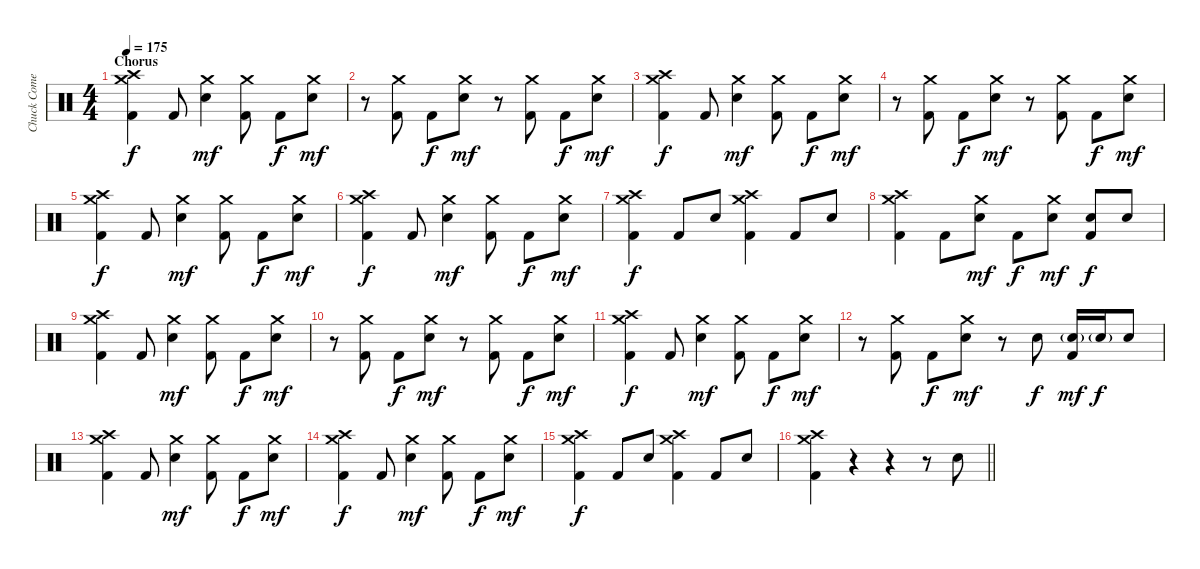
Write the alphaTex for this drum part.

\track ("Chuck Comeau" "Chuck Come") {instrument percussion}
\staff {score}
\articulation defaults
\ts (4 4)
\section ("" "Chorus")
\tempo 175
\clef neutral
\ks c
("Crash high (hit)" "Crash medium (hit)" "Kick (hit) 2").4{dy f} "Kick (hit) 2".8 ("Crash medium (hit)" "Electric Snare (hit)").4{dy mf} ("Crash medium (hit)" "Kick (hit) 2").8 "Kick (hit) 2".8{dy f} ("Crash medium (hit)" "Electric Snare (hit)").8{dy mf} |
r.8 ("Crash medium (hit)" "Kick (hit) 2").8 "Kick (hit) 2".8{dy f} ("Crash medium (hit)" "Electric Snare (hit)").8{dy mf} r.8 ("Crash medium (hit)" "Kick (hit) 2").8 "Kick (hit) 2".8{dy f} ("Crash medium (hit)" "Electric Snare (hit)").8{dy mf} |
("Crash high (hit)" "Crash medium (hit)" "Kick (hit) 2").4{dy f} "Kick (hit) 2".8 ("Crash medium (hit)" "Electric Snare (hit)").4{dy mf} ("Crash medium (hit)" "Kick (hit) 2").8 "Kick (hit) 2".8{dy f} ("Crash medium (hit)" "Electric Snare (hit)").8{dy mf} |
r.8 ("Crash medium (hit)" "Kick (hit) 2").8 "Kick (hit) 2".8{dy f} ("Crash medium (hit)" "Electric Snare (hit)").8{dy mf} r.8 ("Crash medium (hit)" "Kick (hit) 2").8 "Kick (hit) 2".8{dy f} ("Crash medium (hit)" "Electric Snare (hit)").8{dy mf} |
("Crash high (hit)" "Crash medium (hit)" "Kick (hit) 2").4{dy f} "Kick (hit) 2".8 ("Crash medium (hit)" "Electric Snare (hit)").4{dy mf} ("Crash medium (hit)" "Kick (hit) 2").8 "Kick (hit) 2".8{dy f} ("Crash medium (hit)" "Electric Snare (hit)").8{dy mf} |
("Crash high (hit)" "Crash medium (hit)" "Kick (hit) 2").4{dy f} "Kick (hit) 2".8 ("Crash medium (hit)" "Electric Snare (hit)").4{dy mf} ("Crash medium (hit)" "Kick (hit) 2").8 "Kick (hit) 2".8{dy f} ("Crash medium (hit)" "Electric Snare (hit)").8{dy mf} |
("Crash high (hit)" "Crash medium (hit)" "Kick (hit) 2").4{dy f} "Kick (hit) 2".8 "Electric Snare (hit)".8 ("Crash high (hit)" "Crash medium (hit)" "Kick (hit) 2").4 "Kick (hit) 2".8 "Electric Snare (hit)".8 |
("Crash high (hit)" "Crash medium (hit)" "Kick (hit) 2").4 "Kick (hit) 2".8 ("Crash medium (hit)" "Electric Snare (hit)").8{dy mf} "Kick (hit) 2".8{dy f} ("Crash medium (hit)" "Electric Snare (hit)").8{dy mf} ("Electric Snare (hit)" "Kick (hit) 2").8{dy f} "Electric Snare (hit)".8 |
("Crash high (hit)" "Crash medium (hit)" "Kick (hit) 2").4 "Kick (hit) 2".8 ("Crash medium (hit)" "Electric Snare (hit)").4{dy mf} ("Crash medium (hit)" "Kick (hit) 2").8 "Kick (hit) 2".8{dy f} ("Crash medium (hit)" "Electric Snare (hit)").8{dy mf} |
r.8 ("Crash medium (hit)" "Kick (hit) 2").8 "Kick (hit) 2".8{dy f} ("Crash medium (hit)" "Electric Snare (hit)").8{dy mf} r.8 ("Crash medium (hit)" "Kick (hit) 2").8 "Kick (hit) 2".8{dy f} ("Crash medium (hit)" "Electric Snare (hit)").8{dy mf} |
("Crash high (hit)" "Crash medium (hit)" "Kick (hit) 2").4{dy f} "Kick (hit) 2".8 ("Crash medium (hit)" "Electric Snare (hit)").4{dy mf} ("Crash medium (hit)" "Kick (hit) 2").8 "Kick (hit) 2".8{dy f} ("Crash medium (hit)" "Electric Snare (hit)").8{dy mf} |
r.8 ("Crash medium (hit)" "Kick (hit) 2").8 "Kick (hit) 2".8{dy f} ("Crash medium (hit)" "Electric Snare (hit)").8{dy mf} r.8 "Electric Snare (hit)".8{dy f} ("Electric Snare (hit)"{g} "Kick (hit) 2").16{dy mf} "Electric Snare (hit)"{g}.16{dy f} "Electric Snare (hit)".8 |
("Crash high (hit)" "Crash medium (hit)" "Kick (hit) 2").4 "Kick (hit) 2".8 ("Crash medium (hit)" "Electric Snare (hit)").4{dy mf} ("Crash medium (hit)" "Kick (hit) 2").8 "Kick (hit) 2".8{dy f} ("Crash medium (hit)" "Electric Snare (hit)").8{dy mf} |
("Crash high (hit)" "Crash medium (hit)" "Kick (hit) 2").4{dy f} "Kick (hit) 2".8 ("Crash medium (hit)" "Electric Snare (hit)").4{dy mf} ("Crash medium (hit)" "Kick (hit) 2").8 "Kick (hit) 2".8{dy f} ("Crash medium (hit)" "Electric Snare (hit)").8{dy mf} |
("Crash high (hit)" "Crash medium (hit)" "Kick (hit) 2").4{dy f} "Kick (hit) 2".8 "Electric Snare (hit)".8 ("Crash high (hit)" "Crash medium (hit)" "Kick (hit) 2").4 "Kick (hit) 2".8 "Electric Snare (hit)".8 |
\barLineRight lightlight
("Crash high (hit)" "Crash medium (hit)" "Kick (hit) 2").4 r.4 r.4 r.8 "Electric Snare (hit)".8
